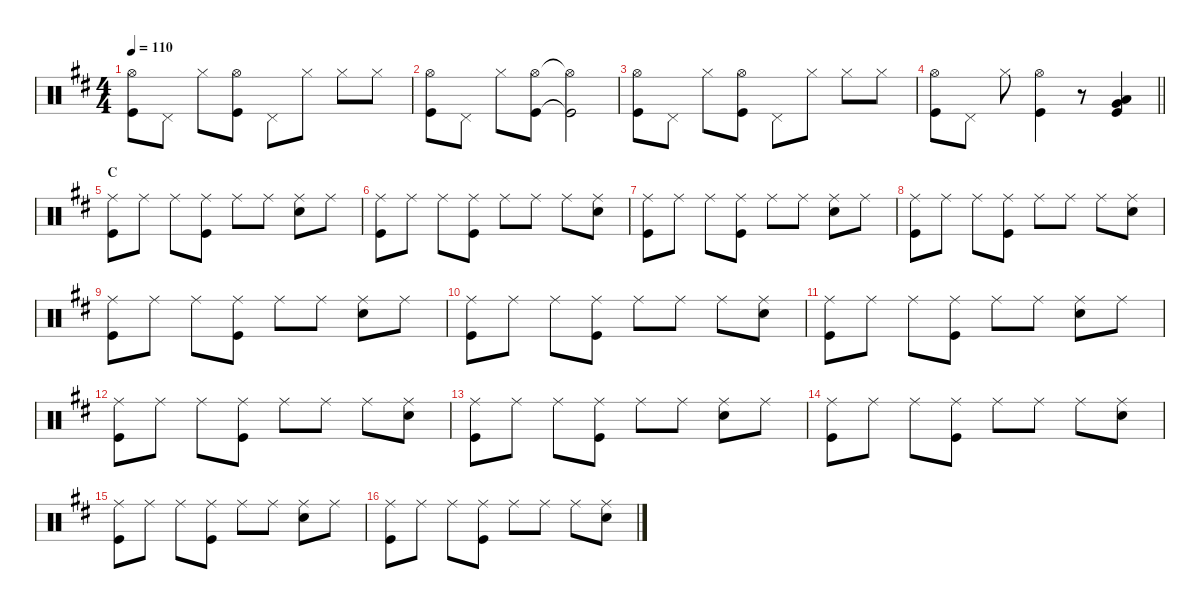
\defaultSystemsLayout 4
\hideDynamics
\bracketExtendMode nobrackets
\singleTrackTrackNamePolicy hidden
\multiTrackTrackNamePolicy hidden
\firstSystemTrackNameMode fullname
\firstSystemTrackNameOrientation horizontal
\otherSystemsTrackNameOrientation horizontal
\track ("Aaron Harris" "drm.") {defaultSystemsLayout 4 instrument percussion}
\staff {score}
\articulation defaults
\ts (4 4)
\tempo 110
\clef neutral
\ks bminor
("Hi-Hat (open)"{acc forcenatural} "Kick (hit)"{acc forcenatural}).8{dy f beam Down} "Pedal Hi-Hat (hit)"{acc forcenatural}.8{beam Down} "Hi-Hat (closed)"{acc forcenatural}.8{beam Down} ("Hi-Hat (open)"{acc forcenatural} "Kick (hit)"{acc forcenatural}).8{beam Down} "Pedal Hi-Hat (hit)"{acc forcenatural}.8{beam Down} "Hi-Hat (closed)"{acc forcenatural}.8{beam Down} "Hi-Hat (closed)"{acc forcenatural}.8{beam Down} "Hi-Hat (closed)"{acc forcenatural}.8{beam Down} |
("Hi-Hat (open)"{acc forcenatural} "Kick (hit)"{acc forcenatural}).8{beam Down} "Pedal Hi-Hat (hit)"{acc forcenatural}.8{beam Down} "Hi-Hat (closed)"{acc forcenatural}.8{beam Down} ("Hi-Hat (open)"{acc forcenatural} "Kick (hit)"{acc forcenatural}).8{beam Down} ("Hi-Hat (open)"{t acc forcenatural} "Kick (hit)"{t acc forcenatural}).2{beam Down} |
("Hi-Hat (open)"{acc forcenatural} "Kick (hit)"{acc forcenatural}).8{beam Down} "Pedal Hi-Hat (hit)"{acc forcenatural}.8{beam Down} "Hi-Hat (closed)"{acc forcenatural}.8{beam Down} ("Hi-Hat (open)"{acc forcenatural} "Kick (hit)"{acc forcenatural}).8{beam Down} "Pedal Hi-Hat (hit)"{acc forcenatural}.8{beam Down} "Hi-Hat (closed)"{acc forcenatural}.8{beam Down} "Hi-Hat (closed)"{acc forcenatural}.8{beam Down} "Hi-Hat (closed)"{acc forcenatural}.8{beam Down} |
\barLineRight lightlight
("Hi-Hat (open)"{acc forcenatural} "Kick (hit)"{acc forcenatural}).8{beam Down} "Pedal Hi-Hat (hit)"{acc forcenatural}.8{beam Down} "Hi-Hat (closed)"{acc forcenatural}.8{beam Down} ("Hi-Hat (open)"{acc forcenatural} "Kick (hit)"{acc forcenatural}).4{beam Down} r.8{beam Down} ("Low Tom (hit)"{acc forcenatural} "Very Low Tom (hit)"{acc forcenatural} "Kick (hit)"{acc forcenatural}).4{beam Up} |
\section ("" "C")
("Ride (middle)"{acc forcenatural} "Kick (hit)"{acc forcenatural}).8{beam Down} "Ride (middle)"{acc forcenatural}.8{beam Down} "Ride (middle)"{acc forcenatural}.8{beam Down} ("Ride (middle)"{acc forcenatural} "Kick (hit)"{acc forcenatural}).8{beam Down} "Ride (middle)"{acc forcenatural}.8{beam Down} "Ride (middle)"{acc forcenatural}.8{beam Down} ("Ride (middle)"{acc forcenatural} "Snare (hit) 2"{acc forcenatural}).8{beam Down} "Ride (middle)"{acc forcenatural}.8{beam Down} |
("Ride (middle)"{acc forcenatural} "Kick (hit)"{acc forcenatural}).8{beam Down} "Ride (middle)"{acc forcenatural}.8{beam Down} "Ride (middle)"{acc forcenatural}.8{beam Down} ("Ride (middle)"{acc forcenatural} "Kick (hit)"{acc forcenatural}).8{beam Down} "Ride (middle)"{acc forcenatural}.8{beam Down} "Ride (middle)"{acc forcenatural}.8{beam Down} "Ride (middle)"{acc forcenatural}.8{beam Down} ("Ride (middle)"{acc forcenatural} "Snare (hit) 2"{acc forcenatural}).8{beam Down} |
("Ride (middle)"{acc forcenatural} "Kick (hit)"{acc forcenatural}).8{beam Down} "Ride (middle)"{acc forcenatural}.8{beam Down} "Ride (middle)"{acc forcenatural}.8{beam Down} ("Ride (middle)"{acc forcenatural} "Kick (hit)"{acc forcenatural}).8{beam Down} "Ride (middle)"{acc forcenatural}.8{beam Down} "Ride (middle)"{acc forcenatural}.8{beam Down} ("Ride (middle)"{acc forcenatural} "Snare (hit) 2"{acc forcenatural}).8{beam Down} "Ride (middle)"{acc forcenatural}.8{beam Down} |
("Ride (middle)"{acc forcenatural} "Kick (hit)"{acc forcenatural}).8{beam Down} "Ride (middle)"{acc forcenatural}.8{beam Down} "Ride (middle)"{acc forcenatural}.8{beam Down} ("Ride (middle)"{acc forcenatural} "Kick (hit)"{acc forcenatural}).8{beam Down} "Ride (middle)"{acc forcenatural}.8{beam Down} "Ride (middle)"{acc forcenatural}.8{beam Down} "Ride (middle)"{acc forcenatural}.8{beam Down} ("Ride (middle)"{acc forcenatural} "Snare (hit) 2"{acc forcenatural}).8{beam Down} |
("Ride (middle)"{acc forcenatural} "Kick (hit)"{acc forcenatural}).8{beam Down} "Ride (middle)"{acc forcenatural}.8{beam Down} "Ride (middle)"{acc forcenatural}.8{beam Down} ("Ride (middle)"{acc forcenatural} "Kick (hit)"{acc forcenatural}).8{beam Down} "Ride (middle)"{acc forcenatural}.8{beam Down} "Ride (middle)"{acc forcenatural}.8{beam Down} ("Ride (middle)"{acc forcenatural} "Snare (hit) 2"{acc forcenatural}).8{beam Down} "Ride (middle)"{acc forcenatural}.8{beam Down} |
("Ride (middle)"{acc forcenatural} "Kick (hit)"{acc forcenatural}).8{beam Down} "Ride (middle)"{acc forcenatural}.8{beam Down} "Ride (middle)"{acc forcenatural}.8{beam Down} ("Ride (middle)"{acc forcenatural} "Kick (hit)"{acc forcenatural}).8{beam Down} "Ride (middle)"{acc forcenatural}.8{beam Down} "Ride (middle)"{acc forcenatural}.8{beam Down} "Ride (middle)"{acc forcenatural}.8{beam Down} ("Ride (middle)"{acc forcenatural} "Snare (hit) 2"{acc forcenatural}).8{beam Down} |
("Ride (middle)"{acc forcenatural} "Kick (hit)"{acc forcenatural}).8{beam Down} "Ride (middle)"{acc forcenatural}.8{beam Down} "Ride (middle)"{acc forcenatural}.8{beam Down} ("Ride (middle)"{acc forcenatural} "Kick (hit)"{acc forcenatural}).8{beam Down} "Ride (middle)"{acc forcenatural}.8{beam Down} "Ride (middle)"{acc forcenatural}.8{beam Down} ("Ride (middle)"{acc forcenatural} "Snare (hit) 2"{acc forcenatural}).8{beam Down} "Ride (middle)"{acc forcenatural}.8{beam Down} |
("Ride (middle)"{acc forcenatural} "Kick (hit)"{acc forcenatural}).8{beam Down} "Ride (middle)"{acc forcenatural}.8{beam Down} "Ride (middle)"{acc forcenatural}.8{beam Down} ("Ride (middle)"{acc forcenatural} "Kick (hit)"{acc forcenatural}).8{beam Down} "Ride (middle)"{acc forcenatural}.8{beam Down} "Ride (middle)"{acc forcenatural}.8{beam Down} "Ride (middle)"{acc forcenatural}.8{beam Down} ("Ride (middle)"{acc forcenatural} "Snare (hit) 2"{acc forcenatural}).8{beam Down} |
("Ride (middle)"{acc forcenatural} "Kick (hit)"{acc forcenatural}).8{beam Down} "Ride (middle)"{acc forcenatural}.8{beam Down} "Ride (middle)"{acc forcenatural}.8{beam Down} ("Ride (middle)"{acc forcenatural} "Kick (hit)"{acc forcenatural}).8{beam Down} "Ride (middle)"{acc forcenatural}.8{beam Down} "Ride (middle)"{acc forcenatural}.8{beam Down} ("Ride (middle)"{acc forcenatural} "Snare (hit) 2"{acc forcenatural}).8{beam Down} "Ride (middle)"{acc forcenatural}.8{beam Down} |
("Ride (middle)"{acc forcenatural} "Kick (hit)"{acc forcenatural}).8{beam Down} "Ride (middle)"{acc forcenatural}.8{beam Down} "Ride (middle)"{acc forcenatural}.8{beam Down} ("Ride (middle)"{acc forcenatural} "Kick (hit)"{acc forcenatural}).8{beam Down} "Ride (middle)"{acc forcenatural}.8{beam Down} "Ride (middle)"{acc forcenatural}.8{beam Down} "Ride (middle)"{acc forcenatural}.8{beam Down} ("Ride (middle)"{acc forcenatural} "Snare (hit) 2"{acc forcenatural}).8{beam Down} |
("Ride (middle)"{acc forcenatural} "Kick (hit)"{acc forcenatural}).8{beam Down} "Ride (middle)"{acc forcenatural}.8{beam Down} "Ride (middle)"{acc forcenatural}.8{beam Down} ("Ride (middle)"{acc forcenatural} "Kick (hit)"{acc forcenatural}).8{beam Down} "Ride (middle)"{acc forcenatural}.8{beam Down} "Ride (middle)"{acc forcenatural}.8{beam Down} ("Ride (middle)"{acc forcenatural} "Snare (hit) 2"{acc forcenatural}).8{beam Down} "Ride (middle)"{acc forcenatural}.8{beam Down} |
("Ride (middle)"{acc forcenatural} "Kick (hit)"{acc forcenatural}).8{beam Down} "Ride (middle)"{acc forcenatural}.8{beam Down} "Ride (middle)"{acc forcenatural}.8{beam Down} ("Ride (middle)"{acc forcenatural} "Kick (hit)"{acc forcenatural}).8{beam Down} "Ride (middle)"{acc forcenatural}.8{beam Down} "Ride (middle)"{acc forcenatural}.8{beam Down} "Ride (middle)"{acc forcenatural}.8{beam Down} ("Ride (middle)"{acc forcenatural} "Snare (hit) 2"{acc forcenatural}).8{beam Down}
